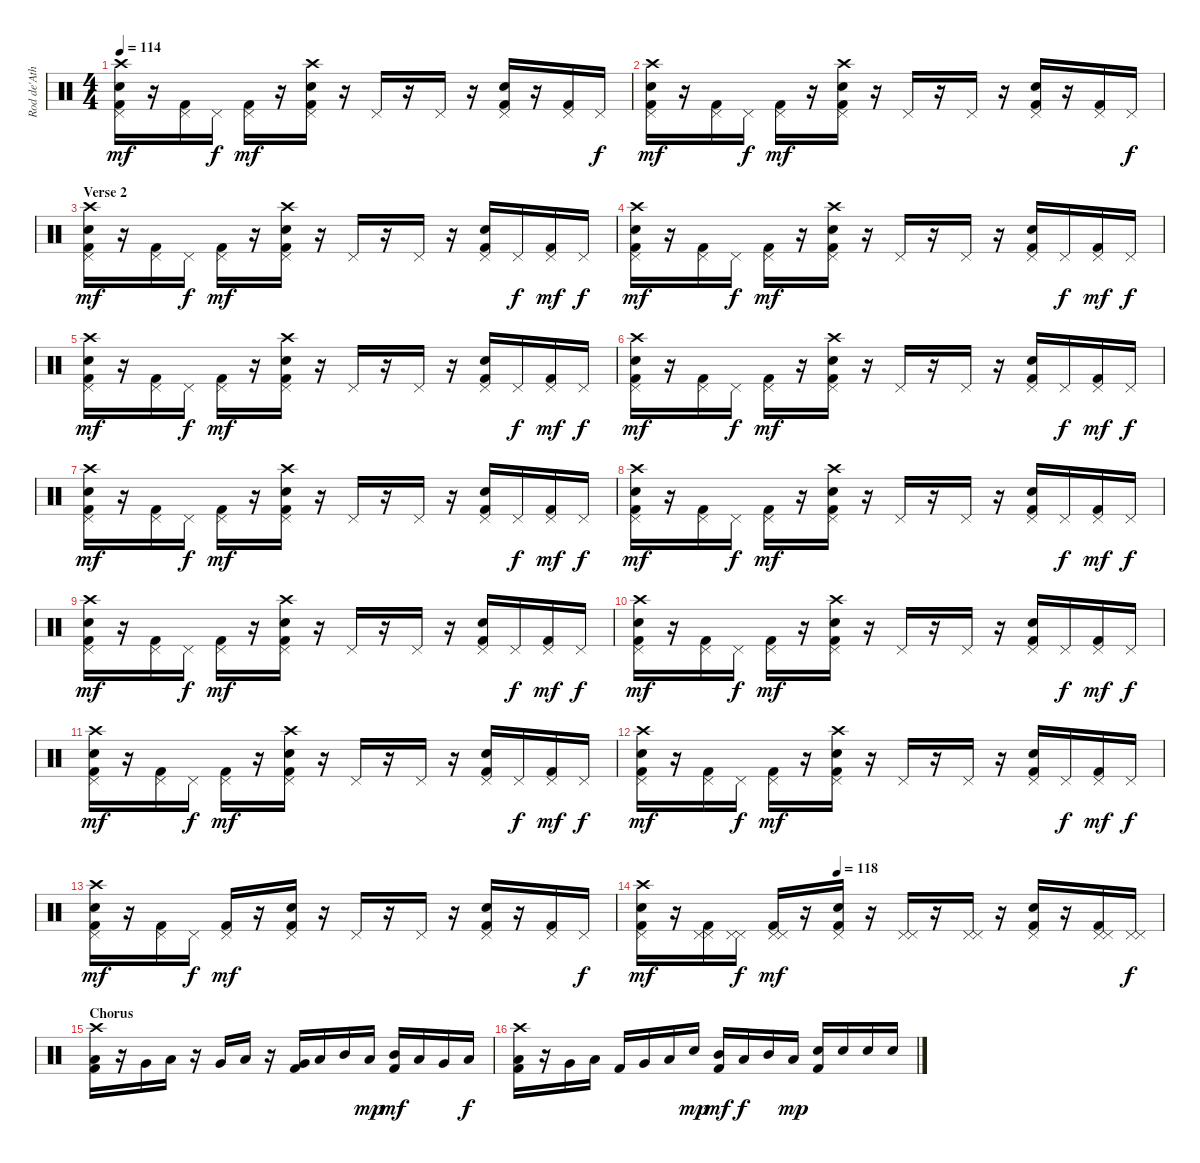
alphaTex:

\track ("Rod de'Ath" "Rod de'Ath") {instrument percussion}
\staff {score}
\articulation defaults
\ts (4 4)
\tempo 114
\clef neutral
\ks c
("Crash high (hit)" "Snare (hit) 2" "Pedal Hi-Hat (hit)" "Kick (hit) 2").16{dy mf} r.16 ("Pedal Hi-Hat (hit)" "Kick (hit) 2").16 "Pedal Hi-Hat (hit)".16{dy f} ("Pedal Hi-Hat (hit)" "Kick (hit) 2").16{dy mf} r.16 ("Crash high (hit)" "Snare (hit) 2" "Pedal Hi-Hat (hit)" "Kick (hit) 2").16 r.16 "Pedal Hi-Hat (hit)".16 r.16 "Pedal Hi-Hat (hit)".16 r.16 ("Snare (hit) 2" "Pedal Hi-Hat (hit)" "Kick (hit) 2").16 r.16 ("Pedal Hi-Hat (hit)" "Kick (hit) 2").16 "Pedal Hi-Hat (hit)".16{dy f} |
("Crash high (hit)" "Snare (hit) 2" "Pedal Hi-Hat (hit)" "Kick (hit) 2").16{dy mf} r.16 ("Pedal Hi-Hat (hit)" "Kick (hit) 2").16 "Pedal Hi-Hat (hit)".16{dy f} ("Pedal Hi-Hat (hit)" "Kick (hit) 2").16{dy mf} r.16 ("Crash high (hit)" "Snare (hit) 2" "Pedal Hi-Hat (hit)" "Kick (hit) 2").16 r.16 "Pedal Hi-Hat (hit)".16 r.16 "Pedal Hi-Hat (hit)".16 r.16 ("Snare (hit) 2" "Pedal Hi-Hat (hit)" "Kick (hit) 2").16 r.16 ("Pedal Hi-Hat (hit)" "Kick (hit) 2").16 "Pedal Hi-Hat (hit)".16{dy f} |
\section ("" "Verse 2")
("Crash high (hit)" "Snare (hit) 2" "Pedal Hi-Hat (hit)" "Kick (hit) 2").16{dy mf} r.16 ("Pedal Hi-Hat (hit)" "Kick (hit) 2").16 "Pedal Hi-Hat (hit)".16{dy f} ("Pedal Hi-Hat (hit)" "Kick (hit) 2").16{dy mf} r.16 ("Crash high (hit)" "Snare (hit) 2" "Pedal Hi-Hat (hit)" "Kick (hit) 2").16 r.16 "Pedal Hi-Hat (hit)".16 r.16 "Pedal Hi-Hat (hit)".16 r.16 ("Snare (hit) 2" "Pedal Hi-Hat (hit)" "Kick (hit) 2").16 "Pedal Hi-Hat (hit)".16{dy f} ("Pedal Hi-Hat (hit)" "Kick (hit) 2").16{dy mf} "Pedal Hi-Hat (hit)".16{dy f} |
("Crash high (hit)" "Snare (hit) 2" "Pedal Hi-Hat (hit)" "Kick (hit) 2").16{dy mf} r.16 ("Pedal Hi-Hat (hit)" "Kick (hit) 2").16 "Pedal Hi-Hat (hit)".16{dy f} ("Pedal Hi-Hat (hit)" "Kick (hit) 2").16{dy mf} r.16 ("Crash high (hit)" "Snare (hit) 2" "Pedal Hi-Hat (hit)" "Kick (hit) 2").16 r.16 "Pedal Hi-Hat (hit)".16 r.16 "Pedal Hi-Hat (hit)".16 r.16 ("Snare (hit) 2" "Pedal Hi-Hat (hit)" "Kick (hit) 2").16 "Pedal Hi-Hat (hit)".16{dy f} ("Pedal Hi-Hat (hit)" "Kick (hit) 2").16{dy mf} "Pedal Hi-Hat (hit)".16{dy f} |
("Crash high (hit)" "Snare (hit) 2" "Pedal Hi-Hat (hit)" "Kick (hit) 2").16{dy mf} r.16 ("Pedal Hi-Hat (hit)" "Kick (hit) 2").16 "Pedal Hi-Hat (hit)".16{dy f} ("Pedal Hi-Hat (hit)" "Kick (hit) 2").16{dy mf} r.16 ("Crash high (hit)" "Snare (hit) 2" "Pedal Hi-Hat (hit)" "Kick (hit) 2").16 r.16 "Pedal Hi-Hat (hit)".16 r.16 "Pedal Hi-Hat (hit)".16 r.16 ("Snare (hit) 2" "Pedal Hi-Hat (hit)" "Kick (hit) 2").16 "Pedal Hi-Hat (hit)".16{dy f} ("Pedal Hi-Hat (hit)" "Kick (hit) 2").16{dy mf} "Pedal Hi-Hat (hit)".16{dy f} |
("Crash high (hit)" "Snare (hit) 2" "Pedal Hi-Hat (hit)" "Kick (hit) 2").16{dy mf} r.16 ("Pedal Hi-Hat (hit)" "Kick (hit) 2").16 "Pedal Hi-Hat (hit)".16{dy f} ("Pedal Hi-Hat (hit)" "Kick (hit) 2").16{dy mf} r.16 ("Crash high (hit)" "Snare (hit) 2" "Pedal Hi-Hat (hit)" "Kick (hit) 2").16 r.16 "Pedal Hi-Hat (hit)".16 r.16 "Pedal Hi-Hat (hit)".16 r.16 ("Snare (hit) 2" "Pedal Hi-Hat (hit)" "Kick (hit) 2").16 "Pedal Hi-Hat (hit)".16{dy f} ("Pedal Hi-Hat (hit)" "Kick (hit) 2").16{dy mf} "Pedal Hi-Hat (hit)".16{dy f} |
("Crash high (hit)" "Snare (hit) 2" "Pedal Hi-Hat (hit)" "Kick (hit) 2").16{dy mf} r.16 ("Pedal Hi-Hat (hit)" "Kick (hit) 2").16 "Pedal Hi-Hat (hit)".16{dy f} ("Pedal Hi-Hat (hit)" "Kick (hit) 2").16{dy mf} r.16 ("Crash high (hit)" "Snare (hit) 2" "Pedal Hi-Hat (hit)" "Kick (hit) 2").16 r.16 "Pedal Hi-Hat (hit)".16 r.16 "Pedal Hi-Hat (hit)".16 r.16 ("Snare (hit) 2" "Pedal Hi-Hat (hit)" "Kick (hit) 2").16 "Pedal Hi-Hat (hit)".16{dy f} ("Pedal Hi-Hat (hit)" "Kick (hit) 2").16{dy mf} "Pedal Hi-Hat (hit)".16{dy f} |
("Crash high (hit)" "Snare (hit) 2" "Pedal Hi-Hat (hit)" "Kick (hit) 2").16{dy mf} r.16 ("Pedal Hi-Hat (hit)" "Kick (hit) 2").16 "Pedal Hi-Hat (hit)".16{dy f} ("Pedal Hi-Hat (hit)" "Kick (hit) 2").16{dy mf} r.16 ("Crash high (hit)" "Snare (hit) 2" "Pedal Hi-Hat (hit)" "Kick (hit) 2").16 r.16 "Pedal Hi-Hat (hit)".16 r.16 "Pedal Hi-Hat (hit)".16 r.16 ("Snare (hit) 2" "Pedal Hi-Hat (hit)" "Kick (hit) 2").16 "Pedal Hi-Hat (hit)".16{dy f} ("Pedal Hi-Hat (hit)" "Kick (hit) 2").16{dy mf} "Pedal Hi-Hat (hit)".16{dy f} |
("Crash high (hit)" "Snare (hit) 2" "Pedal Hi-Hat (hit)" "Kick (hit) 2").16{dy mf} r.16 ("Pedal Hi-Hat (hit)" "Kick (hit) 2").16 "Pedal Hi-Hat (hit)".16{dy f} ("Pedal Hi-Hat (hit)" "Kick (hit) 2").16{dy mf} r.16 ("Crash high (hit)" "Snare (hit) 2" "Pedal Hi-Hat (hit)" "Kick (hit) 2").16 r.16 "Pedal Hi-Hat (hit)".16 r.16 "Pedal Hi-Hat (hit)".16 r.16 ("Snare (hit) 2" "Pedal Hi-Hat (hit)" "Kick (hit) 2").16 "Pedal Hi-Hat (hit)".16{dy f} ("Pedal Hi-Hat (hit)" "Kick (hit) 2").16{dy mf} "Pedal Hi-Hat (hit)".16{dy f} |
("Crash high (hit)" "Snare (hit) 2" "Pedal Hi-Hat (hit)" "Kick (hit) 2").16{dy mf} r.16 ("Pedal Hi-Hat (hit)" "Kick (hit) 2").16 "Pedal Hi-Hat (hit)".16{dy f} ("Pedal Hi-Hat (hit)" "Kick (hit) 2").16{dy mf} r.16 ("Crash high (hit)" "Snare (hit) 2" "Pedal Hi-Hat (hit)" "Kick (hit) 2").16 r.16 "Pedal Hi-Hat (hit)".16 r.16 "Pedal Hi-Hat (hit)".16 r.16 ("Snare (hit) 2" "Pedal Hi-Hat (hit)" "Kick (hit) 2").16 "Pedal Hi-Hat (hit)".16{dy f} ("Pedal Hi-Hat (hit)" "Kick (hit) 2").16{dy mf} "Pedal Hi-Hat (hit)".16{dy f} |
("Crash high (hit)" "Snare (hit) 2" "Pedal Hi-Hat (hit)" "Kick (hit) 2").16{dy mf} r.16 ("Pedal Hi-Hat (hit)" "Kick (hit) 2").16 "Pedal Hi-Hat (hit)".16{dy f} ("Pedal Hi-Hat (hit)" "Kick (hit) 2").16{dy mf} r.16 ("Crash high (hit)" "Snare (hit) 2" "Pedal Hi-Hat (hit)" "Kick (hit) 2").16 r.16 "Pedal Hi-Hat (hit)".16 r.16 "Pedal Hi-Hat (hit)".16 r.16 ("Snare (hit) 2" "Pedal Hi-Hat (hit)" "Kick (hit) 2").16 "Pedal Hi-Hat (hit)".16{dy f} ("Pedal Hi-Hat (hit)" "Kick (hit) 2").16{dy mf} "Pedal Hi-Hat (hit)".16{dy f} |
("Crash high (hit)" "Snare (hit) 2" "Pedal Hi-Hat (hit)" "Kick (hit) 2").16{dy mf} r.16 ("Pedal Hi-Hat (hit)" "Kick (hit) 2").16 "Pedal Hi-Hat (hit)".16{dy f} ("Pedal Hi-Hat (hit)" "Kick (hit) 2").16{dy mf} r.16 ("Crash high (hit)" "Snare (hit) 2" "Pedal Hi-Hat (hit)" "Kick (hit) 2").16 r.16 "Pedal Hi-Hat (hit)".16 r.16 "Pedal Hi-Hat (hit)".16 r.16 ("Snare (hit) 2" "Pedal Hi-Hat (hit)" "Kick (hit) 2").16 "Pedal Hi-Hat (hit)".16{dy f} ("Pedal Hi-Hat (hit)" "Kick (hit) 2").16{dy mf} "Pedal Hi-Hat (hit)".16{dy f} |
("Crash high (hit)" "Snare (hit) 2" "Pedal Hi-Hat (hit)" "Kick (hit) 2").16{dy mf} r.16 ("Pedal Hi-Hat (hit)" "Kick (hit) 2").16 "Pedal Hi-Hat (hit)".16{dy f} ("Pedal Hi-Hat (hit)" "Kick (hit) 2").16{dy mf} r.16 ("Snare (hit) 2" "Pedal Hi-Hat (hit)" "Kick (hit) 2").16 r.16 "Pedal Hi-Hat (hit)".16 r.16 "Pedal Hi-Hat (hit)".16 r.16 ("Snare (hit) 2" "Pedal Hi-Hat (hit)" "Kick (hit) 2").16 r.16 ("Pedal Hi-Hat (hit)" "Kick (hit) 2").16 "Pedal Hi-Hat (hit)".16{dy f} |
\tempo (118 0.375)
("Crash high (hit)" "Snare (hit) 2" "Pedal Hi-Hat (hit)" "Kick (hit) 2").16{dy mf} r.16 ("Pedal Hi-Hat (hit)" "Pedal Hi-Hat (hit)" "Kick (hit) 2").16 ("Pedal Hi-Hat (hit)" "Pedal Hi-Hat (hit)").16{dy f} ("Pedal Hi-Hat (hit)" "Pedal Hi-Hat (hit)" "Kick (hit) 2").16{dy mf} r.16 ("Snare (hit) 2" "Pedal Hi-Hat (hit)" "Kick (hit) 2").16 r.16 ("Pedal Hi-Hat (hit)" "Pedal Hi-Hat (hit)").16 r.16 ("Pedal Hi-Hat (hit)" "Pedal Hi-Hat (hit)").16 r.16 ("Snare (hit) 2" "Pedal Hi-Hat (hit)" "Kick (hit) 2").16 r.16 ("Pedal Hi-Hat (hit)" "Pedal Hi-Hat (hit)" "Kick (hit) 2").16 ("Pedal Hi-Hat (hit)" "Pedal Hi-Hat (hit)").16{dy f} |
\section ("" "Chorus")
("Crash high (hit)" "Low Tom (hit)" "Kick (hit) 2").16 r.16 "Very Low Tom (hit)".16 "Low Tom (hit)".16 r.16 "Very Low Tom (hit)".16 "Low Tom (hit)".16 r.16 ("Very Low Tom (hit)" "Kick (hit) 2").16 "Low Tom (hit)".16 "Mid Tom (hit)".16 "Low Tom (hit)".16{dy mp} ("Mid Tom (hit)" "Kick (hit) 2").16{dy mf} "Low Tom (hit)".16 "Very Low Tom (hit)".16 "Low Tom (hit)".16{dy f} |
("Crash high (hit)" "Low Tom (hit)" "Kick (hit) 2").16 r.16 "Very Low Tom (hit)".16 "Low Tom (hit)".16 "Kick (hit) 2".16 "Very Low Tom (hit)".16 "Low Tom (hit)".16 "Snare (hit) 2".16{dy mp} ("Mid Tom (hit)" "Kick (hit) 2").16{dy mf} "Low Tom (hit)".16{dy f} "Mid Tom (hit)".16 "Low Tom (hit)".16{dy mp} ("Snare (hit) 2" "Kick (hit) 2").16 "Snare (hit) 2".16 "Snare (hit) 2".16 "Snare (hit) 2".16
